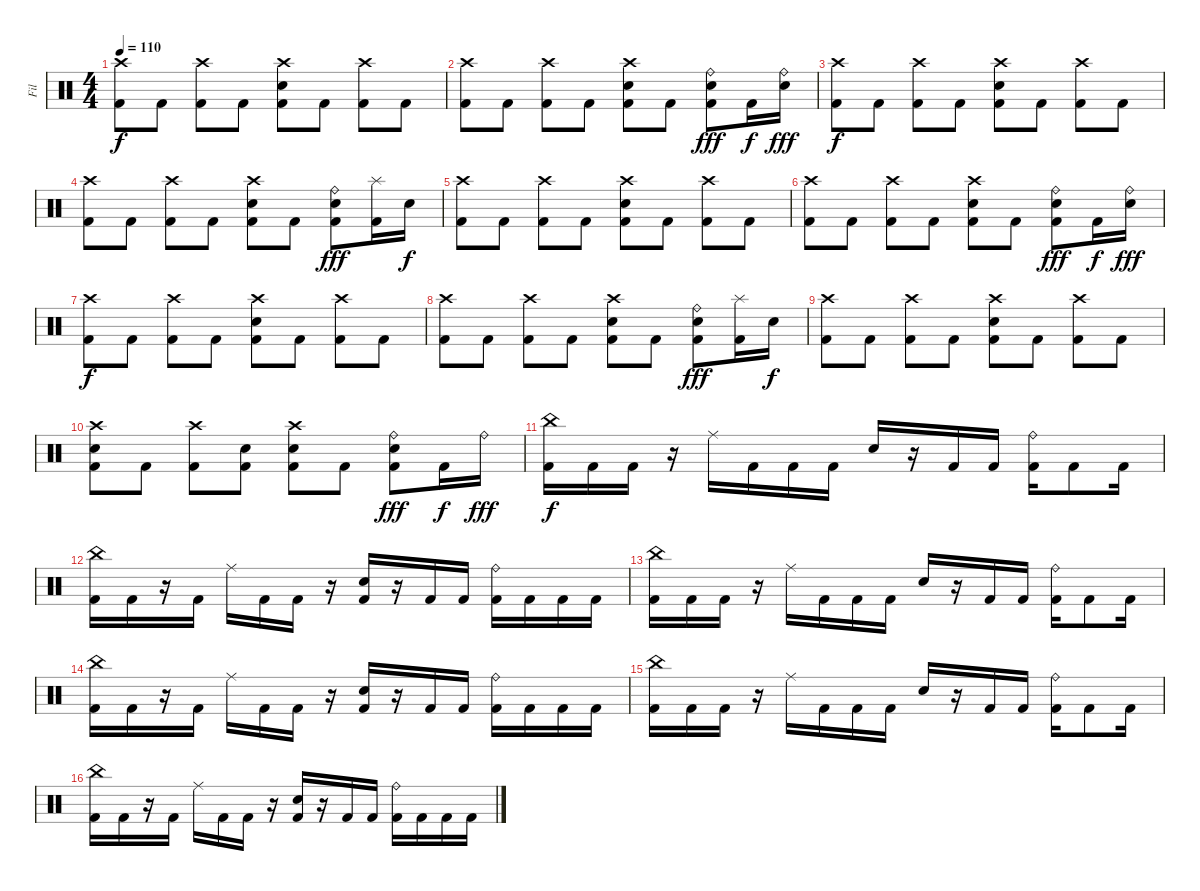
\track ("Fil" "Fil") {instrument percussion}
\staff {score}
\articulation defaults
\ts (4 4)
\tempo 110
\clef neutral
\ks c
("Crash high (hit)" "Kick (hit) 2").8{dy f} "Kick (hit) 2".8 ("Kick (hit) 2" "Crash high (hit)").8 "Kick (hit) 2".8 ("Kick (hit) 2" "Crash high (hit)" "Snare (hit) 2").8 "Kick (hit) 2".8 ("Kick (hit) 2" "Crash high (hit)").8 "Kick (hit) 2".8 |
("Crash high (hit)" "Kick (hit) 2").8 "Kick (hit) 2".8 ("Kick (hit) 2" "Crash high (hit)").8 "Kick (hit) 2".8 ("Kick (hit) 2" "Crash high (hit)" "Snare (hit) 2").8 "Kick (hit) 2".8 ("Kick (hit) 2" "Ride (bell)" "Snare (hit) 2").8{dy fff} "Kick (hit) 2".16{dy f} ("Snare (hit) 2" "Ride (bell)").16{dy fff} |
("Crash high (hit)" "Kick (hit) 2").8{dy f} "Kick (hit) 2".8 ("Kick (hit) 2" "Crash high (hit)").8 "Kick (hit) 2".8 ("Kick (hit) 2" "Crash high (hit)" "Snare (hit) 2").8 "Kick (hit) 2".8 ("Kick (hit) 2" "Crash high (hit)").8 "Kick (hit) 2".8 |
("Crash high (hit)" "Kick (hit) 2").8 "Kick (hit) 2".8 ("Kick (hit) 2" "Crash high (hit)").8 "Kick (hit) 2".8 ("Kick (hit) 2" "Crash high (hit)" "Snare (hit) 2").8 "Kick (hit) 2".8 ("Kick (hit) 2" "Ride (bell)" "Snare (hit) 2").8{dy fff} ("Kick (hit) 2" "Splash (hit)").16 "Snare (hit) 2".16{dy f} |
("Crash high (hit)" "Kick (hit) 2").8 "Kick (hit) 2".8 ("Kick (hit) 2" "Crash high (hit)").8 "Kick (hit) 2".8 ("Kick (hit) 2" "Crash high (hit)" "Snare (hit) 2").8 "Kick (hit) 2".8 ("Kick (hit) 2" "Crash high (hit)").8 "Kick (hit) 2".8 |
("Crash high (hit)" "Kick (hit) 2").8 "Kick (hit) 2".8 ("Kick (hit) 2" "Crash high (hit)").8 "Kick (hit) 2".8 ("Kick (hit) 2" "Crash high (hit)" "Snare (hit) 2").8 "Kick (hit) 2".8 ("Kick (hit) 2" "Ride (bell)" "Snare (hit) 2").8{dy fff} "Kick (hit) 2".16{dy f} ("Snare (hit) 2" "Ride (bell)").16{dy fff} |
("Crash high (hit)" "Kick (hit) 2").8{dy f} "Kick (hit) 2".8 ("Kick (hit) 2" "Crash high (hit)").8 "Kick (hit) 2".8 ("Kick (hit) 2" "Crash high (hit)" "Snare (hit) 2").8 "Kick (hit) 2".8 ("Kick (hit) 2" "Crash high (hit)").8 "Kick (hit) 2".8 |
("Crash high (hit)" "Kick (hit) 2").8 "Kick (hit) 2".8 ("Kick (hit) 2" "Crash high (hit)").8 "Kick (hit) 2".8 ("Kick (hit) 2" "Crash high (hit)" "Snare (hit) 2").8 "Kick (hit) 2".8 ("Kick (hit) 2" "Ride (bell)" "Snare (hit) 2").8{dy fff} ("Kick (hit) 2" "Splash (hit)").16 "Snare (hit) 2".16{dy f} |
("Crash high (hit)" "Kick (hit) 2").8 "Kick (hit) 2".8 ("Kick (hit) 2" "Crash high (hit)").8 "Kick (hit) 2".8 ("Kick (hit) 2" "Crash high (hit)" "Snare (hit) 2").8 "Kick (hit) 2".8 ("Kick (hit) 2" "Crash high (hit)").8 "Kick (hit) 2".8 |
("Crash high (hit)" "Kick (hit) 2" "Snare (hit) 2").8 "Kick (hit) 2".8 ("Kick (hit) 2" "Crash high (hit)").8 ("Kick (hit) 2" "Snare (hit) 2").8 ("Kick (hit) 2" "Crash high (hit)" "Snare (hit) 2").8 "Kick (hit) 2".8 ("Kick (hit) 2" "Ride (bell)" "Snare (hit) 2").8{dy fff} "Kick (hit) 2".16{dy f} "Ride (bell)".16{dy fff} |
("China (hit)" "Kick (hit) 2").16{dy f} "Kick (hit) 2".16 "Kick (hit) 2".16 r.16 "Ride (middle)".16 "Kick (hit) 2".16 "Kick (hit) 2".16 "Kick (hit) 2".16 "Snare (hit) 2".16 r.16 "Kick (hit) 2".16 "Kick (hit) 2".16 ("Kick (hit) 2" "Ride (bell)").16 "Kick (hit) 2".8 "Kick (hit) 2".16 |
("China (hit)" "Kick (hit) 2").16 "Kick (hit) 2".16 r.16 "Kick (hit) 2".16 "Ride (middle)".16 "Kick (hit) 2".16 "Kick (hit) 2".16 r.16 ("Kick (hit) 2" "Snare (hit) 2").16 r.16 "Kick (hit) 2".16 "Kick (hit) 2".16 ("Kick (hit) 2" "Ride (bell)").16 "Kick (hit) 2".16 "Kick (hit) 2".16 "Kick (hit) 2".16 |
("China (hit)" "Kick (hit) 2").16 "Kick (hit) 2".16 "Kick (hit) 2".16 r.16 "Ride (middle)".16 "Kick (hit) 2".16 "Kick (hit) 2".16 "Kick (hit) 2".16 "Snare (hit) 2".16 r.16 "Kick (hit) 2".16 "Kick (hit) 2".16 ("Kick (hit) 2" "Ride (bell)").16 "Kick (hit) 2".8 "Kick (hit) 2".16 |
("China (hit)" "Kick (hit) 2").16 "Kick (hit) 2".16 r.16 "Kick (hit) 2".16 "Ride (middle)".16 "Kick (hit) 2".16 "Kick (hit) 2".16 r.16 ("Kick (hit) 2" "Snare (hit) 2").16 r.16 "Kick (hit) 2".16 "Kick (hit) 2".16 ("Kick (hit) 2" "Ride (bell)").16 "Kick (hit) 2".16 "Kick (hit) 2".16 "Kick (hit) 2".16 |
("China (hit)" "Kick (hit) 2").16 "Kick (hit) 2".16 "Kick (hit) 2".16 r.16 "Ride (middle)".16 "Kick (hit) 2".16 "Kick (hit) 2".16 "Kick (hit) 2".16 "Snare (hit) 2".16 r.16 "Kick (hit) 2".16 "Kick (hit) 2".16 ("Kick (hit) 2" "Ride (bell)").16 "Kick (hit) 2".8 "Kick (hit) 2".16 |
("China (hit)" "Kick (hit) 2").16 "Kick (hit) 2".16 r.16 "Kick (hit) 2".16 "Ride (middle)".16 "Kick (hit) 2".16 "Kick (hit) 2".16 r.16 ("Kick (hit) 2" "Snare (hit) 2").16 r.16 "Kick (hit) 2".16 "Kick (hit) 2".16 ("Kick (hit) 2" "Ride (bell)").16 "Kick (hit) 2".16 "Kick (hit) 2".16 "Kick (hit) 2".16
